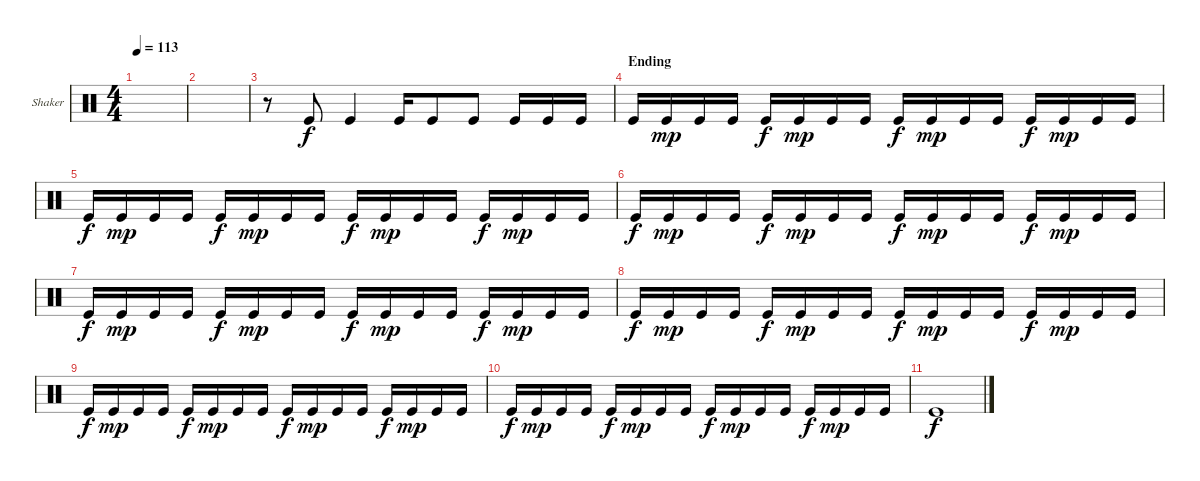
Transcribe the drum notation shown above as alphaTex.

\defaultSystemsLayout 4
\bracketExtendMode groupsimilarinstruments
\firstSystemTrackNameOrientation horizontal
\otherSystemsTrackNameOrientation horizontal
\track ("Shaker" "Shaker") {instrument percussion}
\staff {score}
\articulation defaults
\ts (4 4)
\tempo 113
\clef neutral
\ks c
|
|
r.8 "Kick (hit)".8 "Kick (hit)".4 "Kick (hit)".16 "Kick (hit)".8 "Kick (hit)".8 "Kick (hit)".16 "Kick (hit)".16 "Kick (hit)".16 |
\section ("" "Ending")
"Kick (hit)".16 "Kick (hit)".16{dy mp} "Kick (hit)".16 "Kick (hit)".16 "Kick (hit)".16{dy f} "Kick (hit)".16{dy mp} "Kick (hit)".16 "Kick (hit)".16 "Kick (hit)".16{dy f} "Kick (hit)".16{dy mp} "Kick (hit)".16 "Kick (hit)".16 "Kick (hit)".16{dy f} "Kick (hit)".16{dy mp} "Kick (hit)".16 "Kick (hit)".16 |
"Kick (hit)".16{dy f} "Kick (hit)".16{dy mp} "Kick (hit)".16 "Kick (hit)".16 "Kick (hit)".16{dy f} "Kick (hit)".16{dy mp} "Kick (hit)".16 "Kick (hit)".16 "Kick (hit)".16{dy f} "Kick (hit)".16{dy mp} "Kick (hit)".16 "Kick (hit)".16 "Kick (hit)".16{dy f} "Kick (hit)".16{dy mp} "Kick (hit)".16 "Kick (hit)".16 |
"Kick (hit)".16{dy f} "Kick (hit)".16{dy mp} "Kick (hit)".16 "Kick (hit)".16 "Kick (hit)".16{dy f} "Kick (hit)".16{dy mp} "Kick (hit)".16 "Kick (hit)".16 "Kick (hit)".16{dy f} "Kick (hit)".16{dy mp} "Kick (hit)".16 "Kick (hit)".16 "Kick (hit)".16{dy f} "Kick (hit)".16{dy mp} "Kick (hit)".16 "Kick (hit)".16 |
"Kick (hit)".16{dy f} "Kick (hit)".16{dy mp} "Kick (hit)".16 "Kick (hit)".16 "Kick (hit)".16{dy f} "Kick (hit)".16{dy mp} "Kick (hit)".16 "Kick (hit)".16 "Kick (hit)".16{dy f} "Kick (hit)".16{dy mp} "Kick (hit)".16 "Kick (hit)".16 "Kick (hit)".16{dy f} "Kick (hit)".16{dy mp} "Kick (hit)".16 "Kick (hit)".16 |
"Kick (hit)".16{dy f} "Kick (hit)".16{dy mp} "Kick (hit)".16 "Kick (hit)".16 "Kick (hit)".16{dy f} "Kick (hit)".16{dy mp} "Kick (hit)".16 "Kick (hit)".16 "Kick (hit)".16{dy f} "Kick (hit)".16{dy mp} "Kick (hit)".16 "Kick (hit)".16 "Kick (hit)".16{dy f} "Kick (hit)".16{dy mp} "Kick (hit)".16 "Kick (hit)".16 |
"Kick (hit)".16{dy f} "Kick (hit)".16{dy mp} "Kick (hit)".16 "Kick (hit)".16 "Kick (hit)".16{dy f} "Kick (hit)".16{dy mp} "Kick (hit)".16 "Kick (hit)".16 "Kick (hit)".16{dy f} "Kick (hit)".16{dy mp} "Kick (hit)".16 "Kick (hit)".16 "Kick (hit)".16{dy f} "Kick (hit)".16{dy mp} "Kick (hit)".16 "Kick (hit)".16 |
"Kick (hit)".16{dy f} "Kick (hit)".16{dy mp} "Kick (hit)".16 "Kick (hit)".16 "Kick (hit)".16{dy f} "Kick (hit)".16{dy mp} "Kick (hit)".16 "Kick (hit)".16 "Kick (hit)".16{dy f} "Kick (hit)".16{dy mp} "Kick (hit)".16 "Kick (hit)".16 "Kick (hit)".16{dy f} "Kick (hit)".16{dy mp} "Kick (hit)".16 "Kick (hit)".16 |
"Kick (hit)".1{dy f}
